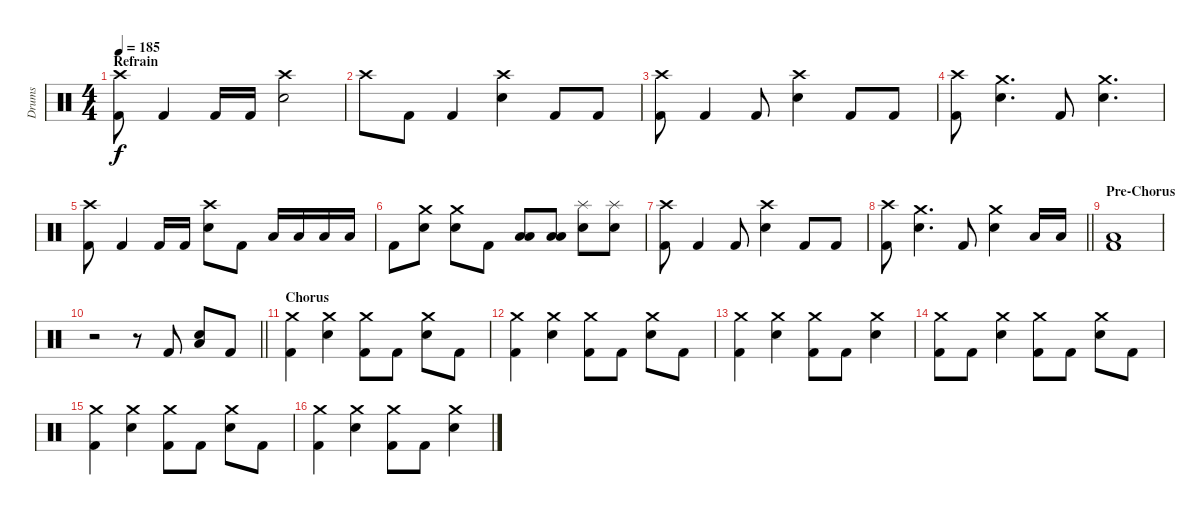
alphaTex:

\track ("Drums" "Drums") {instrument percussion}
\staff {score}
\articulation defaults
\ts (4 4)
\section ("" "Refrain")
\tempo 185
\clef neutral
\ks c
("Crash high (hit)" "Kick (hit) 2").8{dy f} "Kick (hit) 2".4 "Kick (hit) 2".16 "Kick (hit) 2".16 ("Crash high (hit)" "Electric Snare (hit)").2 |
"Crash high (hit)".8 "Kick (hit) 2".8 "Kick (hit) 2".4 ("Crash high (hit)" "Electric Snare (hit)").4 "Kick (hit) 2".8 "Kick (hit) 2".8 |
("Crash high (hit)" "Kick (hit) 2").8 "Kick (hit) 2".4 "Kick (hit) 2".8 ("Crash high (hit)" "Electric Snare (hit)").4 "Kick (hit) 2".8 "Kick (hit) 2".8 |
("Crash high (hit)" "Kick (hit) 2").8 ("Crash medium (hit)" "Electric Snare (hit)").4{d} "Kick (hit) 2".8 ("Crash medium (hit)" "Electric Snare (hit)").4{d} |
("Crash high (hit)" "Kick (hit) 2").8 "Kick (hit) 2".4 "Kick (hit) 2".16 "Kick (hit) 2".16 ("Crash high (hit)" "Electric Snare (hit)").8 "Kick (hit) 2".8 "Low Tom (hit)".16 "Low Tom (hit)".16 "Low Floor Tom (hit)".16 "Low Floor Tom (hit)".16 |
"Kick (hit) 2".8 ("Crash medium (hit)" "Electric Snare (hit)").8 ("Crash medium (hit)" "Electric Snare (hit)").8 "Kick (hit) 2".8 ("Low Tom (hit)" "Low Floor Tom (hit)").8 ("Low Tom (hit)" "Low Floor Tom (hit)").8 ("Splash (hit)" "Electric Snare (hit)").8 ("Splash (hit)" "Electric Snare (hit)").8 |
("Crash high (hit)" "Kick (hit) 2").8 "Kick (hit) 2".4 "Kick (hit) 2".8 ("Crash high (hit)" "Electric Snare (hit)").4 "Kick (hit) 2".8 "Kick (hit) 2".8 |
\barLineRight lightlight
("Crash high (hit)" "Kick (hit) 2").8 ("Crash medium (hit)" "Electric Snare (hit)").4{d} "Kick (hit) 2".8 ("Crash medium (hit)" "Electric Snare (hit)").4 "Low Floor Tom (hit)".16 "Low Floor Tom (hit)".16 |
\section ("" "Pre-Chorus")
("Low Floor Tom (hit)" "Kick (hit) 2").1 |
\barLineRight lightlight
r.2 r.8 "Kick (hit) 2".8 ("Electric Snare (hit)" "Low Floor Tom (hit)").8 "Kick (hit) 2".8 |
\section ("" "Chorus")
("Crash medium (hit)" "Kick (hit) 2").4 ("Crash medium (hit)" "Electric Snare (hit)").4 ("Crash medium (hit)" "Kick (hit) 2").8 "Kick (hit) 2".8 ("Crash medium (hit)" "Electric Snare (hit)").8 "Kick (hit) 2".8 |
("Crash medium (hit)" "Kick (hit) 2").4 ("Crash medium (hit)" "Electric Snare (hit)").4 ("Crash medium (hit)" "Kick (hit) 2").8 "Kick (hit) 2".8 ("Crash medium (hit)" "Electric Snare (hit)").8 "Kick (hit) 2".8 |
("Crash medium (hit)" "Kick (hit) 2").4 ("Crash medium (hit)" "Electric Snare (hit)").4 ("Crash medium (hit)" "Kick (hit) 2").8 "Kick (hit) 2".8 ("Crash medium (hit)" "Electric Snare (hit)").4 |
("Crash medium (hit)" "Kick (hit) 2").8 "Kick (hit) 2".8 ("Crash medium (hit)" "Electric Snare (hit)").4 ("Crash medium (hit)" "Kick (hit) 2").8 "Kick (hit) 2".8 ("Crash medium (hit)" "Electric Snare (hit)").8 "Kick (hit) 2".8 |
("Crash medium (hit)" "Kick (hit) 2").4 ("Crash medium (hit)" "Electric Snare (hit)").4 ("Crash medium (hit)" "Kick (hit) 2").8 "Kick (hit) 2".8 ("Crash medium (hit)" "Electric Snare (hit)").8 "Kick (hit) 2".8 |
("Crash medium (hit)" "Kick (hit) 2").4 ("Crash medium (hit)" "Electric Snare (hit)").4 ("Crash medium (hit)" "Kick (hit) 2").8 "Kick (hit) 2".8 ("Crash medium (hit)" "Electric Snare (hit)").4
